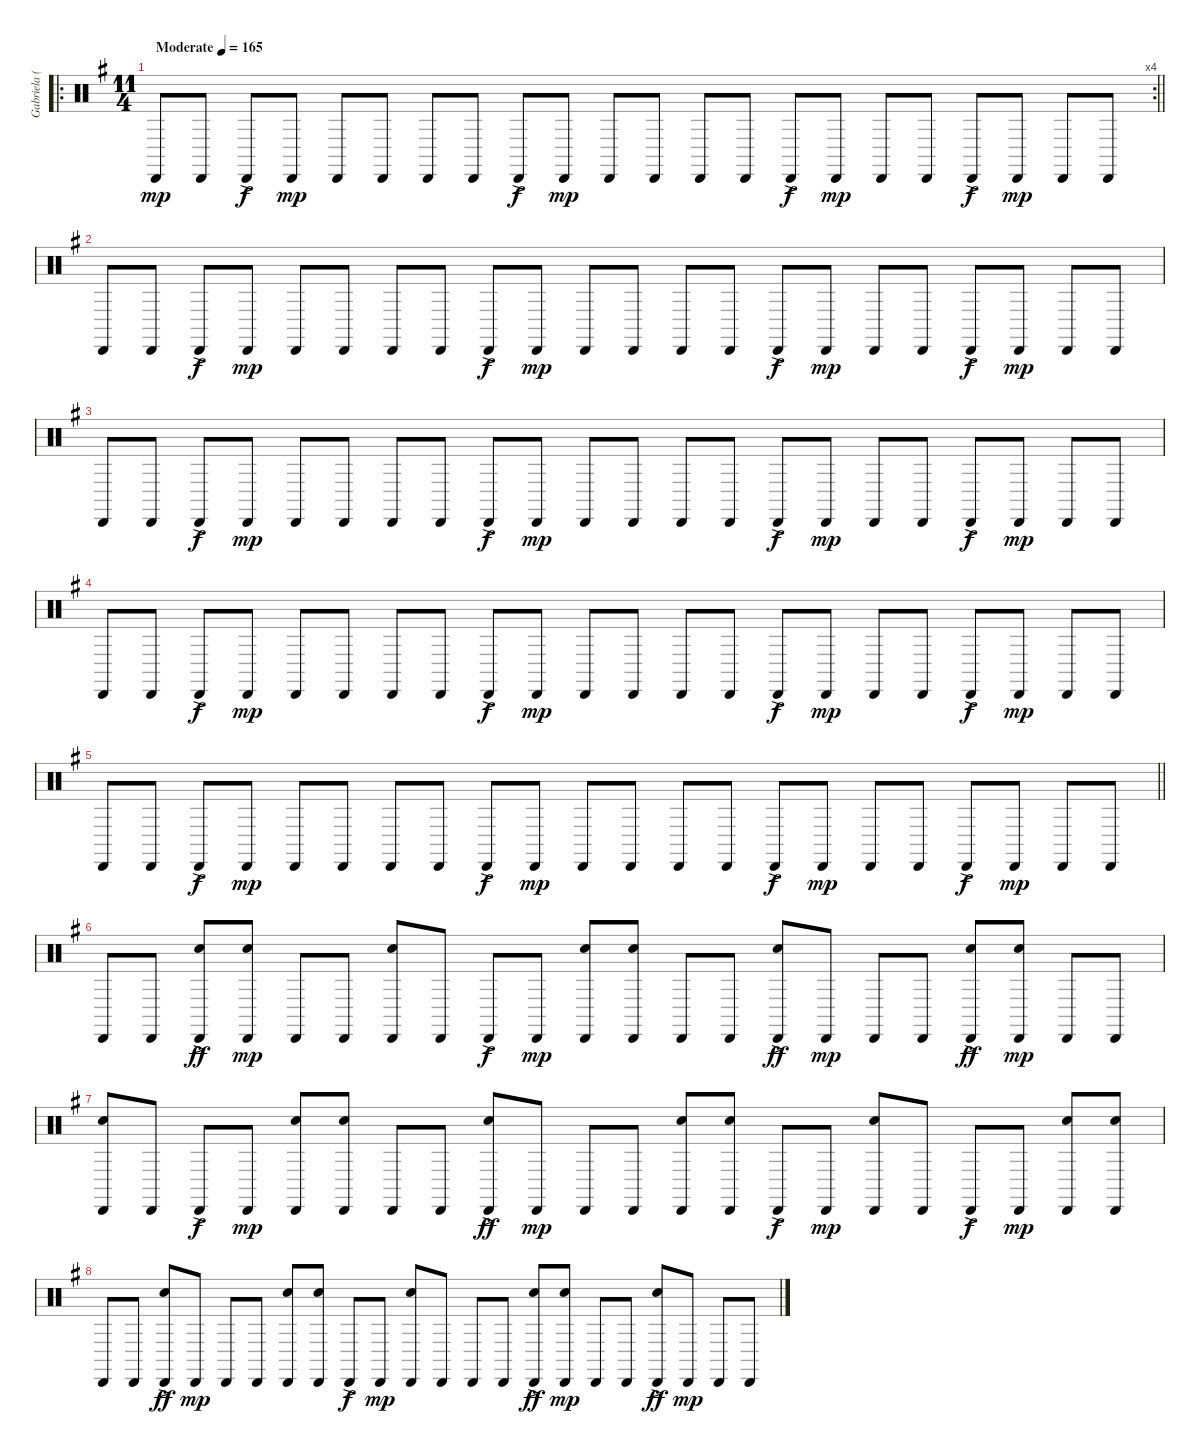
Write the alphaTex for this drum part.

\track ("Gabriela (Guitar Percussion)" "Gabriela (") {instrument percussion}
\staff {score}
\articulation defaults
\ro
\rc 4
\ts (11 4)
\tempo (165 "Moderate")
\clef neutral
\barLineRight lightlight
\ks g "Cabasa (hit)".8{dy mp volume 10} "Cabasa (hit)".8 "Cabasa (hit)"{ac}.8{dy f} "Cabasa (hit)".8{dy mp} "Cabasa (hit)".8 "Cabasa (hit)".8 "Cabasa (hit)".8 "Cabasa (hit)".8 "Cabasa (hit)"{ac}.8{dy f} "Cabasa (hit)".8{dy mp} "Cabasa (hit)".8 "Cabasa (hit)".8 "Cabasa (hit)".8 "Cabasa (hit)".8 "Cabasa (hit)"{ac}.8{dy f} "Cabasa (hit)".8{dy mp} "Cabasa (hit)".8 "Cabasa (hit)".8 "Cabasa (hit)"{ac}.8{dy f} "Cabasa (hit)".8{dy mp} "Cabasa (hit)".8 "Cabasa (hit)".8
|
"Cabasa (hit)".8 "Cabasa (hit)".8 "Cabasa (hit)"{ac}.8{dy f} "Cabasa (hit)".8{dy mp} "Cabasa (hit)".8 "Cabasa (hit)".8 "Cabasa (hit)".8 "Cabasa (hit)".8 "Cabasa (hit)"{ac}.8{dy f} "Cabasa (hit)".8{dy mp} "Cabasa (hit)".8 "Cabasa (hit)".8 "Cabasa (hit)".8 "Cabasa (hit)".8 "Cabasa (hit)"{ac}.8{dy f} "Cabasa (hit)".8{dy mp} "Cabasa (hit)".8 "Cabasa (hit)".8 "Cabasa (hit)"{ac}.8{dy f} "Cabasa (hit)".8{dy mp} "Cabasa (hit)".8 "Cabasa (hit)".8 |
"Cabasa (hit)".8 "Cabasa (hit)".8 "Cabasa (hit)"{ac}.8{dy f} "Cabasa (hit)".8{dy mp} "Cabasa (hit)".8 "Cabasa (hit)".8 "Cabasa (hit)".8 "Cabasa (hit)".8 "Cabasa (hit)"{ac}.8{dy f} "Cabasa (hit)".8{dy mp} "Cabasa (hit)".8 "Cabasa (hit)".8 "Cabasa (hit)".8 "Cabasa (hit)".8 "Cabasa (hit)"{ac}.8{dy f} "Cabasa (hit)".8{dy mp} "Cabasa (hit)".8 "Cabasa (hit)".8 "Cabasa (hit)"{ac}.8{dy f} "Cabasa (hit)".8{dy mp} "Cabasa (hit)".8 "Cabasa (hit)".8 |
"Cabasa (hit)".8 "Cabasa (hit)".8 "Cabasa (hit)"{ac}.8{dy f} "Cabasa (hit)".8{dy mp} "Cabasa (hit)".8 "Cabasa (hit)".8 "Cabasa (hit)".8 "Cabasa (hit)".8 "Cabasa (hit)"{ac}.8{dy f} "Cabasa (hit)".8{dy mp} "Cabasa (hit)".8 "Cabasa (hit)".8 "Cabasa (hit)".8 "Cabasa (hit)".8 "Cabasa (hit)"{ac}.8{dy f} "Cabasa (hit)".8{dy mp} "Cabasa (hit)".8 "Cabasa (hit)".8 "Cabasa (hit)"{ac}.8{dy f} "Cabasa (hit)".8{dy mp} "Cabasa (hit)".8 "Cabasa (hit)".8 |
\barLineRight lightlight "Cabasa (hit)".8 "Cabasa (hit)".8 "Cabasa (hit)"{ac}.8{dy f} "Cabasa (hit)".8{dy mp} "Cabasa (hit)".8 "Cabasa (hit)".8 "Cabasa (hit)".8 "Cabasa (hit)".8 "Cabasa (hit)"{ac}.8{dy f} "Cabasa (hit)".8{dy mp} "Cabasa (hit)".8 "Cabasa (hit)".8 "Cabasa (hit)".8 "Cabasa (hit)".8 "Cabasa (hit)"{ac}.8{dy f} "Cabasa (hit)".8{dy mp} "Cabasa (hit)".8 "Cabasa (hit)".8 "Cabasa (hit)"{ac}.8{dy f} "Cabasa (hit)".8{dy mp} "Cabasa (hit)".8 "Cabasa (hit)".8
|
"Cabasa (hit)".8 "Cabasa (hit)".8 ("Hand Clap (hit)" "Cabasa (hit)"{ac}).8{dy ff} ("Hand Clap (hit)" "Cabasa (hit)").8{dy mp} "Cabasa (hit)".8 "Cabasa (hit)".8 ("Hand Clap (hit)" "Cabasa (hit)").8 "Cabasa (hit)".8 "Cabasa (hit)"{ac}.8{dy f} "Cabasa (hit)".8{dy mp} ("Hand Clap (hit)" "Cabasa (hit)").8 ("Hand Clap (hit)" "Cabasa (hit)").8 "Cabasa (hit)".8 "Cabasa (hit)".8 ("Hand Clap (hit)" "Cabasa (hit)"{ac}).8{dy ff} "Cabasa (hit)".8{dy mp} "Cabasa (hit)".8 "Cabasa (hit)".8 ("Hand Clap (hit)" "Cabasa (hit)"{ac}).8{dy ff} ("Hand Clap (hit)" "Cabasa (hit)").8{dy mp} "Cabasa (hit)".8 "Cabasa (hit)".8 |
("Hand Clap (hit)" "Cabasa (hit)").8 "Cabasa (hit)".8 "Cabasa (hit)"{ac}.8{dy f} "Cabasa (hit)".8{dy mp} ("Hand Clap (hit)" "Cabasa (hit)").8 ("Hand Clap (hit)" "Cabasa (hit)").8 "Cabasa (hit)".8 "Cabasa (hit)".8 ("Hand Clap (hit)" "Cabasa (hit)"{ac}).8{dy ff} "Cabasa (hit)".8{dy mp} "Cabasa (hit)".8 "Cabasa (hit)".8 ("Hand Clap (hit)" "Cabasa (hit)").8 ("Hand Clap (hit)" "Cabasa (hit)").8 "Cabasa (hit)"{ac}.8{dy f} "Cabasa (hit)".8{dy mp} ("Hand Clap (hit)" "Cabasa (hit)").8 "Cabasa (hit)".8 "Cabasa (hit)"{ac}.8{dy f} "Cabasa (hit)".8{dy mp} ("Hand Clap (hit)" "Cabasa (hit)").8 ("Hand Clap (hit)" "Cabasa (hit)").8 |
"Cabasa (hit)".8 "Cabasa (hit)".8 ("Hand Clap (hit)" "Cabasa (hit)"{ac}).8{dy ff} "Cabasa (hit)".8{dy mp} "Cabasa (hit)".8 "Cabasa (hit)".8 ("Hand Clap (hit)" "Cabasa (hit)").8 ("Hand Clap (hit)" "Cabasa (hit)").8 "Cabasa (hit)"{ac}.8{dy f} "Cabasa (hit)".8{dy mp} ("Hand Clap (hit)" "Cabasa (hit)").8 "Cabasa (hit)".8 "Cabasa (hit)".8 "Cabasa (hit)".8 ("Hand Clap (hit)" "Cabasa (hit)"{ac}).8{dy ff} ("Hand Clap (hit)" "Cabasa (hit)").8{dy mp} "Cabasa (hit)".8 "Cabasa (hit)".8 ("Hand Clap (hit)" "Cabasa (hit)"{ac}).8{dy ff} "Cabasa (hit)".8{dy mp} "Cabasa (hit)".8 "Cabasa (hit)".8
